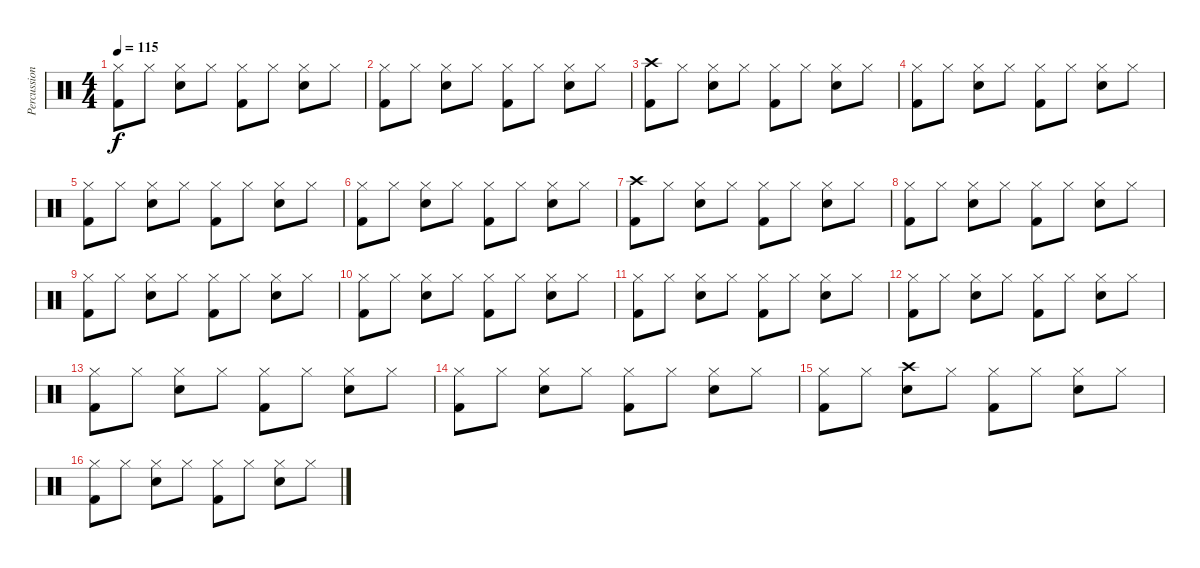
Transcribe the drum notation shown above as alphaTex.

\track ("Percussion" "Percussion") {instrument percussion}
\staff {score}
\articulation defaults
\ts (4 4)
\tempo 115
\clef neutral
\ks c
("Hi-Hat (closed)" "Kick (hit) 2").8{dy f} "Hi-Hat (closed)".8 ("Hi-Hat (closed)" "Snare (hit) 2").8 "Hi-Hat (closed)".8 ("Hi-Hat (closed)" "Kick (hit) 2").8 "Hi-Hat (closed)".8 ("Hi-Hat (closed)" "Snare (hit) 2").8 "Hi-Hat (closed)".8 |
("Hi-Hat (closed)" "Kick (hit) 2").8 "Hi-Hat (closed)".8 ("Hi-Hat (closed)" "Snare (hit) 2").8 "Hi-Hat (closed)".8 ("Hi-Hat (closed)" "Kick (hit) 2").8 "Hi-Hat (closed)".8 ("Hi-Hat (closed)" "Snare (hit) 2").8 "Hi-Hat (closed)".8 |
("Crash high (hit)" "Kick (hit) 2").8 "Hi-Hat (closed)".8 ("Hi-Hat (closed)" "Snare (hit) 2").8 "Hi-Hat (closed)".8 ("Hi-Hat (closed)" "Kick (hit) 2").8 "Hi-Hat (closed)".8 ("Hi-Hat (closed)" "Snare (hit) 2").8 "Hi-Hat (closed)".8 |
("Hi-Hat (closed)" "Kick (hit) 2").8 "Hi-Hat (closed)".8 ("Hi-Hat (closed)" "Snare (hit) 2").8 "Hi-Hat (closed)".8 ("Hi-Hat (closed)" "Kick (hit) 2").8 "Hi-Hat (closed)".8 ("Hi-Hat (closed)" "Snare (hit) 2").8 "Hi-Hat (closed)".8 |
("Hi-Hat (closed)" "Kick (hit) 2").8 "Hi-Hat (closed)".8 ("Hi-Hat (closed)" "Snare (hit) 2").8 "Hi-Hat (closed)".8 ("Hi-Hat (closed)" "Kick (hit) 2").8 "Hi-Hat (closed)".8 ("Hi-Hat (closed)" "Snare (hit) 2").8 "Hi-Hat (closed)".8 |
("Hi-Hat (closed)" "Kick (hit) 2").8 "Hi-Hat (closed)".8 ("Hi-Hat (closed)" "Snare (hit) 2").8 "Hi-Hat (closed)".8 ("Hi-Hat (closed)" "Kick (hit) 2").8 "Hi-Hat (closed)".8 ("Hi-Hat (closed)" "Snare (hit) 2").8 "Hi-Hat (closed)".8 |
("Crash high (hit)" "Kick (hit) 2").8 "Hi-Hat (closed)".8 ("Hi-Hat (closed)" "Snare (hit) 2").8 "Hi-Hat (closed)".8 ("Hi-Hat (closed)" "Kick (hit) 2").8 "Hi-Hat (closed)".8 ("Hi-Hat (closed)" "Snare (hit) 2").8 "Hi-Hat (closed)".8 |
("Hi-Hat (closed)" "Kick (hit) 2").8 "Hi-Hat (closed)".8 ("Hi-Hat (closed)" "Snare (hit) 2").8 "Hi-Hat (closed)".8 ("Hi-Hat (closed)" "Kick (hit) 2").8 "Hi-Hat (closed)".8 ("Hi-Hat (closed)" "Snare (hit) 2").8 "Hi-Hat (closed)".8 |
("Hi-Hat (closed)" "Kick (hit) 2").8 "Hi-Hat (closed)".8 ("Hi-Hat (closed)" "Snare (hit) 2").8 "Hi-Hat (closed)".8 ("Hi-Hat (closed)" "Kick (hit) 2").8 "Hi-Hat (closed)".8 ("Hi-Hat (closed)" "Snare (hit) 2").8 "Hi-Hat (closed)".8 |
("Hi-Hat (closed)" "Kick (hit) 2").8 "Hi-Hat (closed)".8 ("Hi-Hat (closed)" "Snare (hit) 2").8 "Hi-Hat (closed)".8 ("Hi-Hat (closed)" "Kick (hit) 2").8 "Hi-Hat (closed)".8 ("Hi-Hat (closed)" "Snare (hit) 2").8 "Hi-Hat (closed)".8 |
("Hi-Hat (closed)" "Kick (hit) 2").8 "Hi-Hat (closed)".8 ("Hi-Hat (closed)" "Snare (hit) 2").8 "Hi-Hat (closed)".8 ("Hi-Hat (closed)" "Kick (hit) 2").8 "Hi-Hat (closed)".8 ("Hi-Hat (closed)" "Snare (hit) 2").8 "Hi-Hat (closed)".8 |
("Hi-Hat (closed)" "Kick (hit) 2").8 "Hi-Hat (closed)".8 ("Hi-Hat (closed)" "Snare (hit) 2").8 "Hi-Hat (closed)".8 ("Hi-Hat (closed)" "Kick (hit) 2").8 "Hi-Hat (closed)".8 ("Hi-Hat (closed)" "Snare (hit) 2").8 "Hi-Hat (closed)".8 |
("Hi-Hat (closed)" "Kick (hit) 2").8 "Hi-Hat (closed)".8 ("Hi-Hat (closed)" "Snare (hit) 2").8 "Hi-Hat (closed)".8 ("Hi-Hat (closed)" "Kick (hit) 2").8 "Hi-Hat (closed)".8 ("Hi-Hat (closed)" "Snare (hit) 2").8 "Hi-Hat (closed)".8 |
("Hi-Hat (closed)" "Kick (hit) 2").8 "Hi-Hat (closed)".8 ("Hi-Hat (closed)" "Snare (hit) 2").8 "Hi-Hat (closed)".8 ("Hi-Hat (closed)" "Kick (hit) 2").8 "Hi-Hat (closed)".8 ("Hi-Hat (closed)" "Snare (hit) 2").8 "Hi-Hat (closed)".8 |
("Hi-Hat (closed)" "Kick (hit) 2").8 "Hi-Hat (closed)".8 ("Crash high (hit)" "Snare (hit) 2").8 "Hi-Hat (closed)".8 ("Hi-Hat (closed)" "Kick (hit) 2").8 "Hi-Hat (closed)".8 ("Hi-Hat (closed)" "Snare (hit) 2").8 "Hi-Hat (closed)".8 |
("Hi-Hat (closed)" "Kick (hit) 2").8 "Hi-Hat (closed)".8 ("Hi-Hat (closed)" "Snare (hit) 2").8 "Hi-Hat (closed)".8 ("Hi-Hat (closed)" "Kick (hit) 2").8 "Hi-Hat (closed)".8 ("Hi-Hat (closed)" "Snare (hit) 2").8 "Hi-Hat (closed)".8
